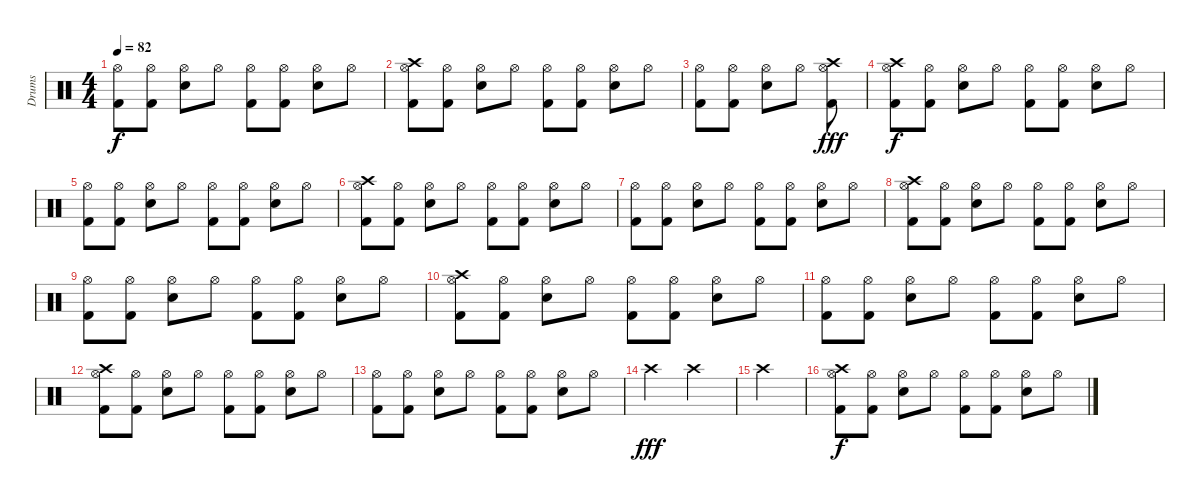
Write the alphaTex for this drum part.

\track ("Drums" "Drums") {instrument percussion}
\staff {score}
\articulation defaults
\ts (4 4)
\tempo 82
\clef neutral
\ks c
("Hi-Hat (open)" "Kick (hit) 2").8{dy f} ("Hi-Hat (open)" "Kick (hit) 2").8 ("Hi-Hat (open)" "Electric Snare (hit)").8 "Hi-Hat (open)".8 ("Hi-Hat (open)" "Kick (hit) 2").8 ("Hi-Hat (open)" "Kick (hit) 2").8 ("Hi-Hat (open)" "Electric Snare (hit)").8 "Hi-Hat (open)".8 |
("Hi-Hat (open)" "Crash high (hit)" "Kick (hit) 2").8 ("Hi-Hat (open)" "Kick (hit) 2").8 ("Hi-Hat (open)" "Electric Snare (hit)").8 "Hi-Hat (open)".8 ("Hi-Hat (open)" "Kick (hit) 2").8 ("Hi-Hat (open)" "Kick (hit) 2").8 ("Hi-Hat (open)" "Electric Snare (hit)").8 "Hi-Hat (open)".8 |
("Hi-Hat (open)" "Kick (hit) 2").8 ("Hi-Hat (open)" "Kick (hit) 2").8 ("Hi-Hat (open)" "Electric Snare (hit)").8 "Hi-Hat (open)".8 ("Hi-Hat (open)" "Crash high (hit)" "Kick (hit) 2").8{dy fff} |
("Hi-Hat (open)" "Crash high (hit)" "Kick (hit) 2").8{dy f} ("Hi-Hat (open)" "Kick (hit) 2").8 ("Hi-Hat (open)" "Electric Snare (hit)").8 "Hi-Hat (open)".8 ("Hi-Hat (open)" "Kick (hit) 2").8 ("Hi-Hat (open)" "Kick (hit) 2").8 ("Hi-Hat (open)" "Electric Snare (hit)").8 "Hi-Hat (open)".8 |
("Hi-Hat (open)" "Kick (hit) 2").8 ("Hi-Hat (open)" "Kick (hit) 2").8 ("Hi-Hat (open)" "Electric Snare (hit)").8 "Hi-Hat (open)".8 ("Hi-Hat (open)" "Kick (hit) 2").8 ("Hi-Hat (open)" "Kick (hit) 2").8 ("Hi-Hat (open)" "Electric Snare (hit)").8 "Hi-Hat (open)".8 |
("Hi-Hat (open)" "Crash high (hit)" "Kick (hit) 2").8 ("Hi-Hat (open)" "Kick (hit) 2").8 ("Hi-Hat (open)" "Electric Snare (hit)").8 "Hi-Hat (open)".8 ("Hi-Hat (open)" "Kick (hit) 2").8 ("Hi-Hat (open)" "Kick (hit) 2").8 ("Hi-Hat (open)" "Electric Snare (hit)").8 "Hi-Hat (open)".8 |
("Hi-Hat (open)" "Kick (hit) 2").8 ("Hi-Hat (open)" "Kick (hit) 2").8 ("Hi-Hat (open)" "Electric Snare (hit)").8 "Hi-Hat (open)".8 ("Hi-Hat (open)" "Kick (hit) 2").8 ("Hi-Hat (open)" "Kick (hit) 2").8 ("Hi-Hat (open)" "Electric Snare (hit)").8 "Hi-Hat (open)".8 |
("Hi-Hat (open)" "Crash high (hit)" "Kick (hit) 2").8 ("Hi-Hat (open)" "Kick (hit) 2").8 ("Hi-Hat (open)" "Electric Snare (hit)").8 "Hi-Hat (open)".8 ("Hi-Hat (open)" "Kick (hit) 2").8 ("Hi-Hat (open)" "Kick (hit) 2").8 ("Hi-Hat (open)" "Electric Snare (hit)").8 "Hi-Hat (open)".8 |
("Hi-Hat (open)" "Kick (hit) 2").8 ("Hi-Hat (open)" "Kick (hit) 2").8 ("Hi-Hat (open)" "Electric Snare (hit)").8 "Hi-Hat (open)".8 ("Hi-Hat (open)" "Kick (hit) 2").8 ("Hi-Hat (open)" "Kick (hit) 2").8 ("Hi-Hat (open)" "Electric Snare (hit)").8 "Hi-Hat (open)".8 |
("Hi-Hat (open)" "Crash high (hit)" "Kick (hit) 2").8 ("Hi-Hat (open)" "Kick (hit) 2").8 ("Hi-Hat (open)" "Electric Snare (hit)").8 "Hi-Hat (open)".8 ("Hi-Hat (open)" "Kick (hit) 2").8 ("Hi-Hat (open)" "Kick (hit) 2").8 ("Hi-Hat (open)" "Electric Snare (hit)").8 "Hi-Hat (open)".8 |
("Hi-Hat (open)" "Kick (hit) 2").8 ("Hi-Hat (open)" "Kick (hit) 2").8 ("Hi-Hat (open)" "Electric Snare (hit)").8 "Hi-Hat (open)".8 ("Hi-Hat (open)" "Kick (hit) 2").8 ("Hi-Hat (open)" "Kick (hit) 2").8 ("Hi-Hat (open)" "Electric Snare (hit)").8 "Hi-Hat (open)".8 |
("Hi-Hat (open)" "Crash high (hit)" "Kick (hit) 2").8 ("Hi-Hat (open)" "Kick (hit) 2").8 ("Hi-Hat (open)" "Electric Snare (hit)").8 "Hi-Hat (open)".8 ("Hi-Hat (open)" "Kick (hit) 2").8 ("Hi-Hat (open)" "Kick (hit) 2").8 ("Hi-Hat (open)" "Electric Snare (hit)").8 "Hi-Hat (open)".8 |
("Hi-Hat (open)" "Kick (hit) 2").8 ("Hi-Hat (open)" "Kick (hit) 2").8 ("Hi-Hat (open)" "Electric Snare (hit)").8 "Hi-Hat (open)".8 ("Hi-Hat (open)" "Kick (hit) 2").8 ("Hi-Hat (open)" "Kick (hit) 2").8 ("Hi-Hat (open)" "Electric Snare (hit)").8 "Hi-Hat (open)".8 |
"Crash high (hit)".2{dy fff} "Crash high (hit)".2 |
"Crash high (hit)".2 |
("Hi-Hat (open)" "Crash high (hit)" "Kick (hit) 2").8{dy f} ("Hi-Hat (open)" "Kick (hit) 2").8 ("Hi-Hat (open)" "Electric Snare (hit)").8 "Hi-Hat (open)".8 ("Hi-Hat (open)" "Kick (hit) 2").8 ("Hi-Hat (open)" "Kick (hit) 2").8 ("Hi-Hat (open)" "Electric Snare (hit)").8 "Hi-Hat (open)".8
